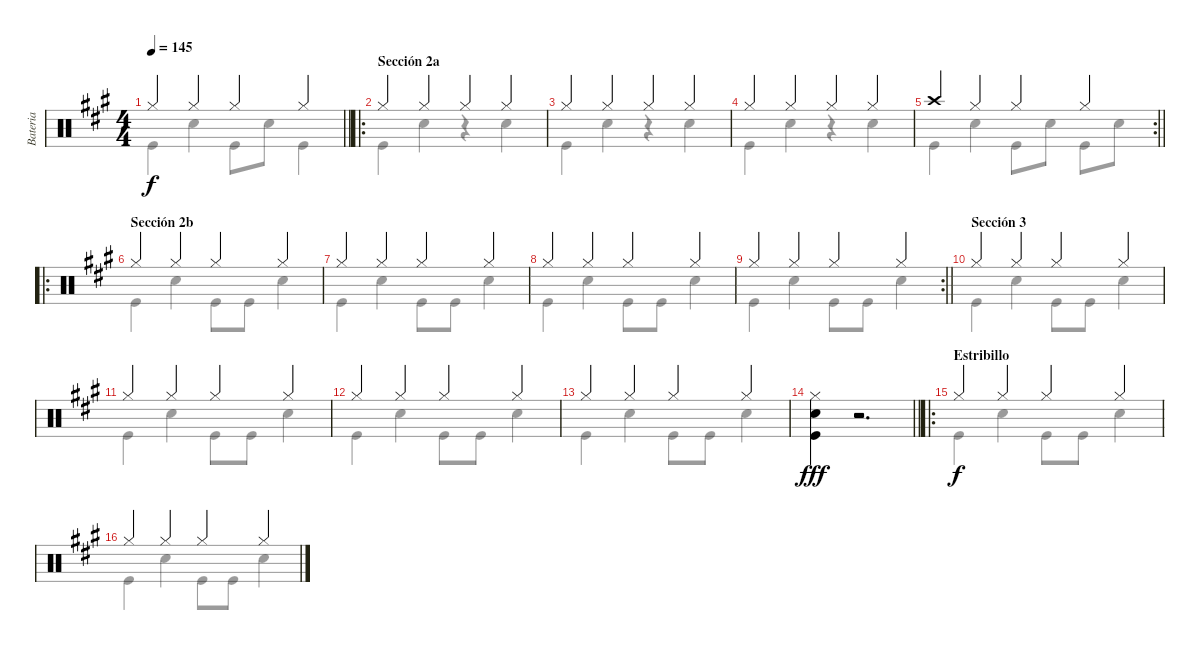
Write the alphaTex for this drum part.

\track ("Bateria" "Bateria") {instrument percussion}
\staff {score}
\articulation defaults
\voice
\ts (4 4)
\tempo 145
\clef neutral
\barLineRight lightlight
\ks a "Hi-Hat (closed)".4{dy f} "Hi-Hat (closed)".4 "Hi-Hat (closed)".4 "Hi-Hat (closed)".4
|
\ro
\section ("" "Sección 2a")
"Hi-Hat (closed)".4 "Hi-Hat (closed)".4 "Hi-Hat (closed)".4 "Hi-Hat (closed)".4 |
"Hi-Hat (closed)".4 "Hi-Hat (closed)".4 "Hi-Hat (closed)".4 "Hi-Hat (closed)".4 |
"Hi-Hat (closed)".4 "Hi-Hat (closed)".4 "Hi-Hat (closed)".4 "Hi-Hat (closed)".4 |
\rc 2
\barLineRight lightlight "Crash high (hit)".4 "Hi-Hat (closed)".4 "Hi-Hat (closed)".4 "Hi-Hat (closed)".4
|
\ro
\section ("" "Sección 2b")
"Hi-Hat (closed)".4 "Hi-Hat (closed)".4 "Hi-Hat (closed)".4 "Hi-Hat (closed)".4 |
"Hi-Hat (closed)".4 "Hi-Hat (closed)".4 "Hi-Hat (closed)".4 "Hi-Hat (closed)".4 |
"Hi-Hat (closed)".4 "Hi-Hat (closed)".4 "Hi-Hat (closed)".4 "Hi-Hat (closed)".4 |
\rc 2
\barLineRight lightlight "Hi-Hat (closed)".4 "Hi-Hat (closed)".4 "Hi-Hat (closed)".4 "Hi-Hat (closed)".4
|
\section ("" "Sección 3")
"Hi-Hat (closed)".4 "Hi-Hat (closed)".4 "Hi-Hat (closed)".4 "Hi-Hat (closed)".4 |
"Hi-Hat (closed)".4 "Hi-Hat (closed)".4 "Hi-Hat (closed)".4 "Hi-Hat (closed)".4 |
"Hi-Hat (closed)".4 "Hi-Hat (closed)".4 "Hi-Hat (closed)".4 "Hi-Hat (closed)".4 |
"Hi-Hat (closed)".4 "Hi-Hat (closed)".4 "Hi-Hat (closed)".4 "Hi-Hat (closed)".4 |
\barLineRight lightlight
("Hi-Hat (closed)" "Kick (hit)" "Snare (hit) 2").4{dy fff} r.2{d} |
\ro
\section ("" "Estribillo")
"Hi-Hat (closed)".4{dy f} "Hi-Hat (closed)".4 "Hi-Hat (closed)".4 "Hi-Hat (closed)".4 |
"Hi-Hat (closed)".4 "Hi-Hat (closed)".4 "Hi-Hat (closed)".4 "Hi-Hat (closed)".4
\voice
\clef neutral
\ottava regular
\simile none
\barLineRight lightlight
\ks a "Kick (hit)".4{dy f} "Snare (hit) 2".4 "Kick (hit)".8 "Snare (hit) 2".8 "Kick (hit)".4
|
"Kick (hit)".4 "Snare (hit) 2".4 r.4 "Snare (hit) 2".4 |
"Kick (hit)".4 "Snare (hit) 2".4 r.4 "Snare (hit) 2".4 |
"Kick (hit)".4 "Snare (hit) 2".4 r.4 "Snare (hit) 2".4 |
\barLineRight lightlight "Kick (hit)".4 "Snare (hit) 2".4 "Kick (hit)".8 "Snare (hit) 2".8 "Kick (hit)".8 "Snare (hit) 2".8
|
"Kick (hit)".4 "Snare (hit) 2".4 "Kick (hit)".8 "Kick (hit)".8 "Snare (hit) 2".4 |
"Kick (hit)".4 "Snare (hit) 2".4 "Kick (hit)".8 "Kick (hit)".8 "Snare (hit) 2".4 |
"Kick (hit)".4 "Snare (hit) 2".4 "Kick (hit)".8 "Kick (hit)".8 "Snare (hit) 2".4 |
\barLineRight lightlight "Kick (hit)".4 "Snare (hit) 2".4 "Kick (hit)".8 "Kick (hit)".8 "Snare (hit) 2".4
|
"Kick (hit)".4 "Snare (hit) 2".4 "Kick (hit)".8 "Kick (hit)".8 "Snare (hit) 2".4 |
"Kick (hit)".4 "Snare (hit) 2".4 "Kick (hit)".8 "Kick (hit)".8 "Snare (hit) 2".4 |
"Kick (hit)".4 "Snare (hit) 2".4 "Kick (hit)".8 "Kick (hit)".8 "Snare (hit) 2".4 |
"Kick (hit)".4 "Snare (hit) 2".4 "Kick (hit)".8 "Kick (hit)".8 "Snare (hit) 2".4 |
\barLineRight lightlight
|
"Kick (hit)".4 "Snare (hit) 2".4 "Kick (hit)".8 "Kick (hit)".8 "Snare (hit) 2".4 |
"Kick (hit)".4 "Snare (hit) 2".4 "Kick (hit)".8 "Kick (hit)".8 "Snare (hit) 2".4
